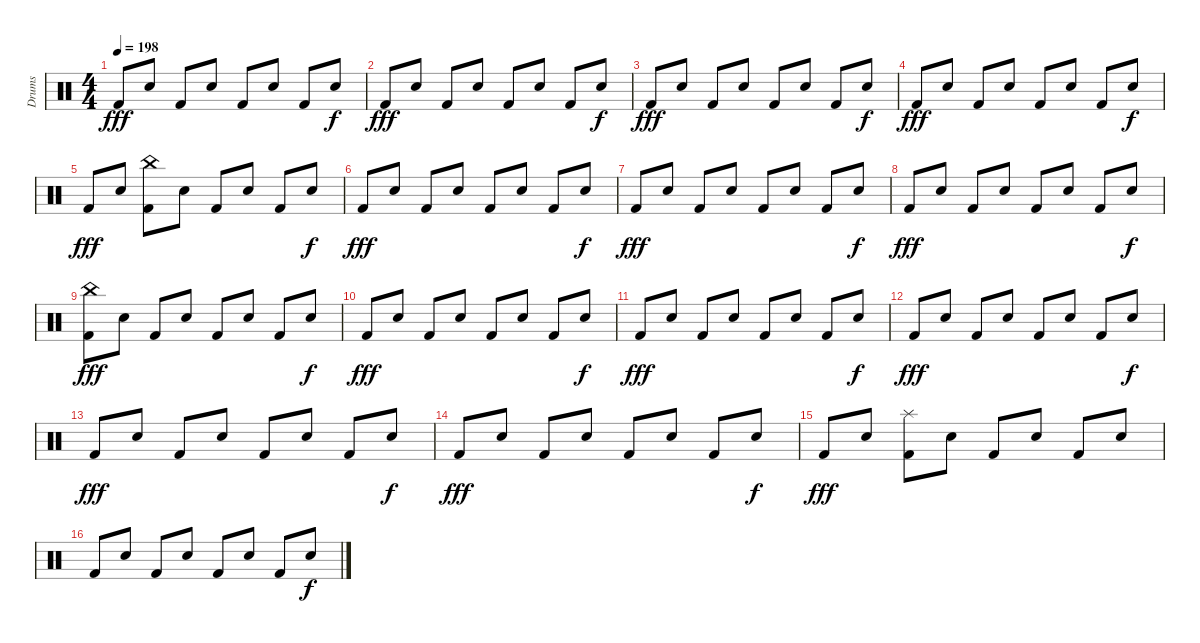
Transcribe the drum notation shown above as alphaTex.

\track ("Drums" "Drums") {instrument percussion}
\staff {score}
\articulation defaults
\ts (4 4)
\tempo 198
\clef neutral
\ks c "Kick (hit) 2".8{dy fff} "Snare (hit) 2".8 "Kick (hit) 2".8 "Snare (hit) 2".8 "Kick (hit) 2".8 "Snare (hit) 2".8 "Kick (hit) 2".8 "Snare (hit) 2".8{dy f}
|
"Kick (hit) 2".8{dy fff} "Snare (hit) 2".8 "Kick (hit) 2".8 "Snare (hit) 2".8 "Kick (hit) 2".8 "Snare (hit) 2".8 "Kick (hit) 2".8 "Snare (hit) 2".8{dy f} |
"Kick (hit) 2".8{dy fff} "Snare (hit) 2".8 "Kick (hit) 2".8 "Snare (hit) 2".8 "Kick (hit) 2".8 "Snare (hit) 2".8 "Kick (hit) 2".8 "Snare (hit) 2".8{dy f} |
"Kick (hit) 2".8{dy fff} "Snare (hit) 2".8 "Kick (hit) 2".8 "Snare (hit) 2".8 "Kick (hit) 2".8 "Snare (hit) 2".8 "Kick (hit) 2".8 "Snare (hit) 2".8{dy f} |
"Kick (hit) 2".8{dy fff} "Snare (hit) 2".8 ("China (hit)" "Kick (hit) 2").8 "Snare (hit) 2".8 "Kick (hit) 2".8 "Snare (hit) 2".8 "Kick (hit) 2".8 "Snare (hit) 2".8{dy f} |
"Kick (hit) 2".8{dy fff} "Snare (hit) 2".8 "Kick (hit) 2".8 "Snare (hit) 2".8 "Kick (hit) 2".8 "Snare (hit) 2".8 "Kick (hit) 2".8 "Snare (hit) 2".8{dy f} |
"Kick (hit) 2".8{dy fff} "Snare (hit) 2".8 "Kick (hit) 2".8 "Snare (hit) 2".8 "Kick (hit) 2".8 "Snare (hit) 2".8 "Kick (hit) 2".8 "Snare (hit) 2".8{dy f} |
"Kick (hit) 2".8{dy fff} "Snare (hit) 2".8 "Kick (hit) 2".8 "Snare (hit) 2".8 "Kick (hit) 2".8 "Snare (hit) 2".8 "Kick (hit) 2".8 "Snare (hit) 2".8{dy f} |
("China (hit)" "Kick (hit) 2").8{dy fff} "Snare (hit) 2".8 "Kick (hit) 2".8 "Snare (hit) 2".8 "Kick (hit) 2".8 "Snare (hit) 2".8 "Kick (hit) 2".8 "Snare (hit) 2".8{dy f} |
"Kick (hit) 2".8{dy fff} "Snare (hit) 2".8 "Kick (hit) 2".8 "Snare (hit) 2".8 "Kick (hit) 2".8 "Snare (hit) 2".8 "Kick (hit) 2".8 "Snare (hit) 2".8{dy f} |
"Kick (hit) 2".8{dy fff} "Snare (hit) 2".8 "Kick (hit) 2".8 "Snare (hit) 2".8 "Kick (hit) 2".8 "Snare (hit) 2".8 "Kick (hit) 2".8 "Snare (hit) 2".8{dy f} |
"Kick (hit) 2".8{dy fff} "Snare (hit) 2".8 "Kick (hit) 2".8 "Snare (hit) 2".8 "Kick (hit) 2".8 "Snare (hit) 2".8 "Kick (hit) 2".8 "Snare (hit) 2".8{dy f} |
"Kick (hit) 2".8{dy fff} "Snare (hit) 2".8 "Kick (hit) 2".8 "Snare (hit) 2".8 "Kick (hit) 2".8 "Snare (hit) 2".8 "Kick (hit) 2".8 "Snare (hit) 2".8{dy f} |
"Kick (hit) 2".8{dy fff} "Snare (hit) 2".8 "Kick (hit) 2".8 "Snare (hit) 2".8 "Kick (hit) 2".8 "Snare (hit) 2".8 "Kick (hit) 2".8 "Snare (hit) 2".8{dy f} |
"Kick (hit) 2".8{dy fff} "Snare (hit) 2".8 ("Splash (hit)" "Kick (hit) 2").8 "Snare (hit) 2".8 "Kick (hit) 2".8 "Snare (hit) 2".8 "Kick (hit) 2".8 "Snare (hit) 2".8 |
"Kick (hit) 2".8 "Snare (hit) 2".8 "Kick (hit) 2".8 "Snare (hit) 2".8 "Kick (hit) 2".8 "Snare (hit) 2".8 "Kick (hit) 2".8 "Snare (hit) 2".8{dy f}
